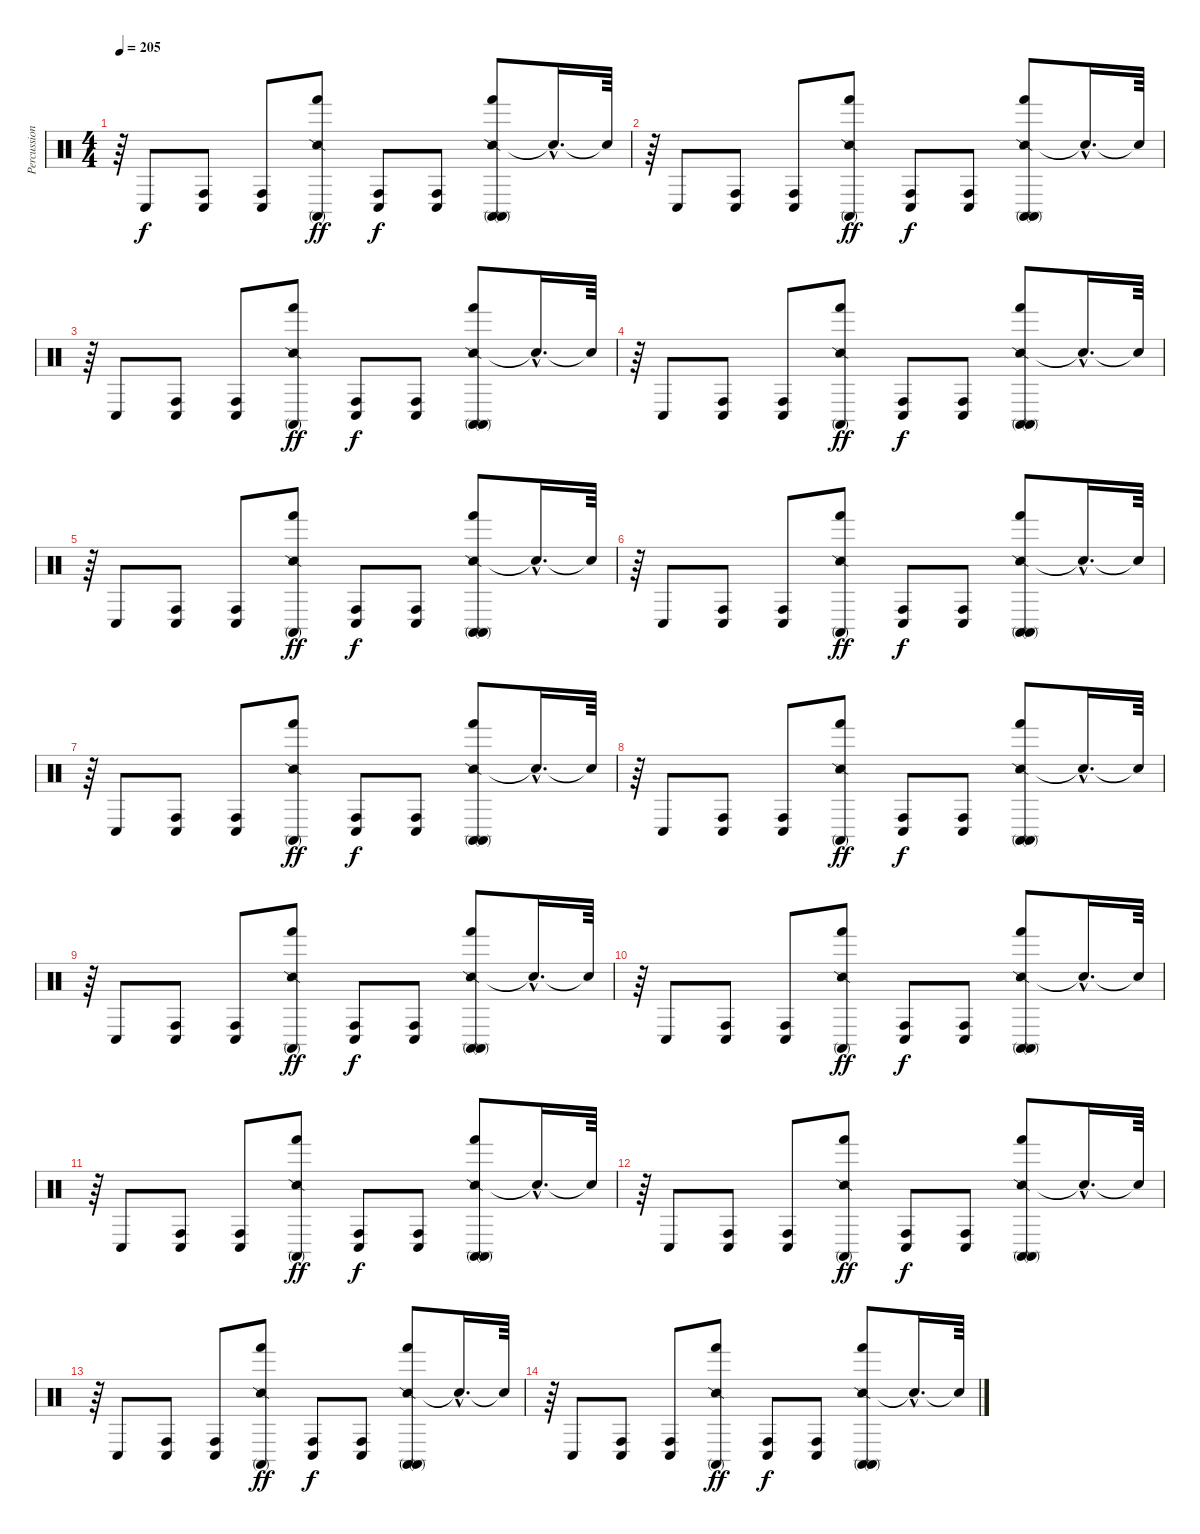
\track ("Percussion" "Percussion") {instrument percussion}
\staff {score}
\articulation defaults
\ts (4 4)
\tempo 205
\clef neutral
\ks c
r.64{dy f} "Conga low (hit)".8 ("Conga high (hit)" "Conga low (hit)").8 ("Conga high (hit)" "Conga low (hit)").8 ("Snare (side stick) 2" "Hand (hit)" "Conga high (mute)").8{dy ff} ("Conga high (hit)" "Conga low (hit)").8{dy f} ("Conga high (hit)" "Conga low (hit)").8 ("Snare (side stick) 2" "Hand (hit)" "Conga high (mute)" "Conga high (mute)").8 "Snare (hit)"{hac t}.16{d} "Snare (hit)"{t}.64 |
r.64 "Conga low (hit)".8 ("Conga high (hit)" "Conga low (hit)").8 ("Conga high (hit)" "Conga low (hit)").8 ("Snare (side stick) 2" "Hand (hit)" "Conga high (mute)").8{dy ff} ("Conga high (hit)" "Conga low (hit)").8{dy f} ("Conga high (hit)" "Conga low (hit)").8 ("Snare (side stick) 2" "Hand (hit)" "Conga high (mute)" "Conga high (mute)").8 "Snare (hit)"{hac t}.16{d} "Snare (hit)"{t}.64 |
r.64 "Conga low (hit)".8 ("Conga high (hit)" "Conga low (hit)").8 ("Conga high (hit)" "Conga low (hit)").8 ("Snare (side stick) 2" "Hand (hit)" "Conga high (mute)").8{dy ff} ("Conga high (hit)" "Conga low (hit)").8{dy f} ("Conga high (hit)" "Conga low (hit)").8 ("Snare (side stick) 2" "Hand (hit)" "Conga high (mute)" "Conga high (mute)").8 "Snare (hit)"{hac t}.16{d} "Snare (hit)"{t}.64 |
r.64 "Conga low (hit)".8 ("Conga high (hit)" "Conga low (hit)").8 ("Conga high (hit)" "Conga low (hit)").8 ("Snare (side stick) 2" "Hand (hit)" "Conga high (mute)").8{dy ff} ("Conga high (hit)" "Conga low (hit)").8{dy f} ("Conga high (hit)" "Conga low (hit)").8 ("Snare (side stick) 2" "Hand (hit)" "Conga high (mute)" "Conga high (mute)").8 "Snare (hit)"{hac t}.16{d} "Snare (hit)"{t}.64 |
r.64 "Conga low (hit)".8 ("Conga high (hit)" "Conga low (hit)").8 ("Conga high (hit)" "Conga low (hit)").8 ("Snare (side stick) 2" "Hand (hit)" "Conga high (mute)").8{dy ff} ("Conga high (hit)" "Conga low (hit)").8{dy f} ("Conga high (hit)" "Conga low (hit)").8 ("Snare (side stick) 2" "Hand (hit)" "Conga high (mute)" "Conga high (mute)").8 "Snare (hit)"{hac t}.16{d} "Snare (hit)"{t}.64 |
r.64 "Conga low (hit)".8 ("Conga high (hit)" "Conga low (hit)").8 ("Conga high (hit)" "Conga low (hit)").8 ("Snare (side stick) 2" "Hand (hit)" "Conga high (mute)").8{dy ff} ("Conga high (hit)" "Conga low (hit)").8{dy f} ("Conga high (hit)" "Conga low (hit)").8 ("Snare (side stick) 2" "Hand (hit)" "Conga high (mute)" "Conga high (mute)").8 "Snare (hit)"{hac t}.16{d} "Snare (hit)"{t}.64 |
r.64 "Conga low (hit)".8 ("Conga high (hit)" "Conga low (hit)").8 ("Conga high (hit)" "Conga low (hit)").8 ("Snare (side stick) 2" "Hand (hit)" "Conga high (mute)").8{dy ff} ("Conga high (hit)" "Conga low (hit)").8{dy f} ("Conga high (hit)" "Conga low (hit)").8 ("Snare (side stick) 2" "Hand (hit)" "Conga high (mute)" "Conga high (mute)").8 "Snare (hit)"{hac t}.16{d} "Snare (hit)"{t}.64 |
r.64 "Conga low (hit)".8 ("Conga high (hit)" "Conga low (hit)").8 ("Conga high (hit)" "Conga low (hit)").8 ("Snare (side stick) 2" "Hand (hit)" "Conga high (mute)").8{dy ff} ("Conga high (hit)" "Conga low (hit)").8{dy f} ("Conga high (hit)" "Conga low (hit)").8 ("Snare (side stick) 2" "Hand (hit)" "Conga high (mute)" "Conga high (mute)").8 "Snare (hit)"{hac t}.16{d} "Snare (hit)"{t}.64 |
r.64 "Conga low (hit)".8 ("Conga high (hit)" "Conga low (hit)").8 ("Conga high (hit)" "Conga low (hit)").8 ("Snare (side stick) 2" "Hand (hit)" "Conga high (mute)").8{dy ff} ("Conga high (hit)" "Conga low (hit)").8{dy f} ("Conga high (hit)" "Conga low (hit)").8 ("Snare (side stick) 2" "Hand (hit)" "Conga high (mute)" "Conga high (mute)").8 "Snare (hit)"{hac t}.16{d} "Snare (hit)"{t}.64 |
r.64 "Conga low (hit)".8 ("Conga high (hit)" "Conga low (hit)").8 ("Conga high (hit)" "Conga low (hit)").8 ("Snare (side stick) 2" "Hand (hit)" "Conga high (mute)").8{dy ff} ("Conga high (hit)" "Conga low (hit)").8{dy f} ("Conga high (hit)" "Conga low (hit)").8 ("Snare (side stick) 2" "Hand (hit)" "Conga high (mute)" "Conga high (mute)").8 "Snare (hit)"{hac t}.16{d} "Snare (hit)"{t}.64 |
r.64 "Conga low (hit)".8 ("Conga high (hit)" "Conga low (hit)").8 ("Conga high (hit)" "Conga low (hit)").8 ("Snare (side stick) 2" "Hand (hit)" "Conga high (mute)").8{dy ff} ("Conga high (hit)" "Conga low (hit)").8{dy f} ("Conga high (hit)" "Conga low (hit)").8 ("Snare (side stick) 2" "Hand (hit)" "Conga high (mute)" "Conga high (mute)").8 "Snare (hit)"{hac t}.16{d} "Snare (hit)"{t}.64 |
r.64 "Conga low (hit)".8 ("Conga high (hit)" "Conga low (hit)").8 ("Conga high (hit)" "Conga low (hit)").8 ("Snare (side stick) 2" "Hand (hit)" "Conga high (mute)").8{dy ff} ("Conga high (hit)" "Conga low (hit)").8{dy f} ("Conga high (hit)" "Conga low (hit)").8 ("Snare (side stick) 2" "Hand (hit)" "Conga high (mute)" "Conga high (mute)").8 "Snare (hit)"{hac t}.16{d} "Snare (hit)"{t}.64 |
r.64 "Conga low (hit)".8 ("Conga high (hit)" "Conga low (hit)").8 ("Conga high (hit)" "Conga low (hit)").8 ("Snare (side stick) 2" "Hand (hit)" "Conga high (mute)").8{dy ff} ("Conga high (hit)" "Conga low (hit)").8{dy f} ("Conga high (hit)" "Conga low (hit)").8 ("Snare (side stick) 2" "Hand (hit)" "Conga high (mute)" "Conga high (mute)").8 "Snare (hit)"{hac t}.16{d} "Snare (hit)"{t}.64 |
r.64 "Conga low (hit)".8 ("Conga high (hit)" "Conga low (hit)").8 ("Conga high (hit)" "Conga low (hit)").8 ("Snare (side stick) 2" "Hand (hit)" "Conga high (mute)").8{dy ff} ("Conga high (hit)" "Conga low (hit)").8{dy f} ("Conga high (hit)" "Conga low (hit)").8 ("Snare (side stick) 2" "Hand (hit)" "Conga high (mute)" "Conga high (mute)").8 "Snare (hit)"{hac t}.16{d} "Snare (hit)"{t}.64
